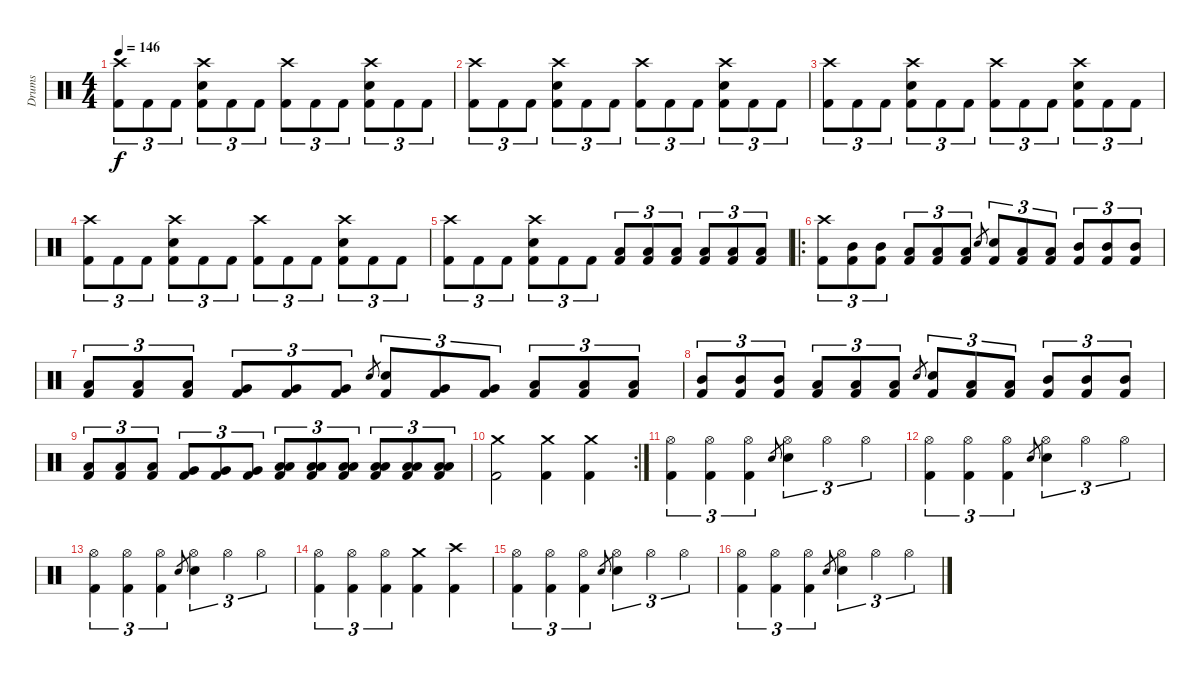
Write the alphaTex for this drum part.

\track ("Drums" "Drums") {instrument percussion}
\staff {score}
\articulation defaults
\ts (4 4)
\tempo 146
\clef neutral
\ks c
("Crash high (hit)" "Kick (hit) 2").8{tu (3 2) dy f} "Kick (hit) 2".8{tu (3 2)} "Kick (hit) 2".8{tu (3 2)} ("Crash high (hit)" "Snare (hit) 2" "Kick (hit) 2").8{tu (3 2)} "Kick (hit) 2".8{tu (3 2)} "Kick (hit) 2".8{tu (3 2)} ("Crash high (hit)" "Kick (hit) 2").8{tu (3 2)} "Kick (hit) 2".8{tu (3 2)} "Kick (hit) 2".8{tu (3 2)} ("Crash high (hit)" "Snare (hit) 2" "Kick (hit) 2").8{tu (3 2)} "Kick (hit) 2".8{tu (3 2)} "Kick (hit) 2".8{tu (3 2)} |
("Crash high (hit)" "Kick (hit) 2").8{tu (3 2)} "Kick (hit) 2".8{tu (3 2)} "Kick (hit) 2".8{tu (3 2)} ("Crash high (hit)" "Snare (hit) 2" "Kick (hit) 2").8{tu (3 2)} "Kick (hit) 2".8{tu (3 2)} "Kick (hit) 2".8{tu (3 2)} ("Crash high (hit)" "Kick (hit) 2").8{tu (3 2)} "Kick (hit) 2".8{tu (3 2)} "Kick (hit) 2".8{tu (3 2)} ("Crash high (hit)" "Snare (hit) 2" "Kick (hit) 2").8{tu (3 2)} "Kick (hit) 2".8{tu (3 2)} "Kick (hit) 2".8{tu (3 2)} |
("Crash high (hit)" "Kick (hit) 2").8{tu (3 2)} "Kick (hit) 2".8{tu (3 2)} "Kick (hit) 2".8{tu (3 2)} ("Crash high (hit)" "Snare (hit) 2" "Kick (hit) 2").8{tu (3 2)} "Kick (hit) 2".8{tu (3 2)} "Kick (hit) 2".8{tu (3 2)} ("Crash high (hit)" "Kick (hit) 2").8{tu (3 2)} "Kick (hit) 2".8{tu (3 2)} "Kick (hit) 2".8{tu (3 2)} ("Crash high (hit)" "Snare (hit) 2" "Kick (hit) 2").8{tu (3 2)} "Kick (hit) 2".8{tu (3 2)} "Kick (hit) 2".8{tu (3 2)} |
("Crash high (hit)" "Kick (hit) 2").8{tu (3 2)} "Kick (hit) 2".8{tu (3 2)} "Kick (hit) 2".8{tu (3 2)} ("Crash high (hit)" "Snare (hit) 2" "Kick (hit) 2").8{tu (3 2)} "Kick (hit) 2".8{tu (3 2)} "Kick (hit) 2".8{tu (3 2)} ("Crash high (hit)" "Kick (hit) 2").8{tu (3 2)} "Kick (hit) 2".8{tu (3 2)} "Kick (hit) 2".8{tu (3 2)} ("Crash high (hit)" "Snare (hit) 2" "Kick (hit) 2").8{tu (3 2)} "Kick (hit) 2".8{tu (3 2)} "Kick (hit) 2".8{tu (3 2)} |
("Crash high (hit)" "Kick (hit) 2").8{tu (3 2)} "Kick (hit) 2".8{tu (3 2)} "Kick (hit) 2".8{tu (3 2)} ("Crash high (hit)" "Snare (hit) 2" "Kick (hit) 2").8{tu (3 2)} "Kick (hit) 2".8{tu (3 2)} "Kick (hit) 2".8{tu (3 2)} ("Low Tom (hit)" "Kick (hit) 2").8{tu (3 2)} ("Low Tom (hit)" "Kick (hit) 2").8{tu (3 2)} ("Low Tom (hit)" "Kick (hit) 2").8{tu (3 2)} ("Low Tom (hit)" "Kick (hit) 2").8{tu (3 2)} ("Low Tom (hit)" "Kick (hit) 2").8{tu (3 2)} ("Low Tom (hit)" "Kick (hit) 2").8{tu (3 2)} |
\ro
("Crash high (hit)" "Kick (hit) 2").8{tu (3 2)} ("Mid Tom (hit)" "Kick (hit) 2").8{tu (3 2)} ("Mid Tom (hit)" "Kick (hit) 2").8{tu (3 2)} ("Low Tom (hit)" "Kick (hit) 2").8{tu (3 2)} ("Low Tom (hit)" "Kick (hit) 2").8{tu (3 2)} ("Low Tom (hit)" "Kick (hit) 2").8{tu (3 2)} "Snare (hit) 2".8{gr} ("Snare (hit) 2" "Kick (hit) 2").8{tu (3 2)} ("Low Tom (hit)" "Kick (hit) 2").8{tu (3 2)} ("Low Tom (hit)" "Kick (hit) 2").8{tu (3 2)} ("Mid Tom (hit)" "Kick (hit) 2").8{tu (3 2)} ("Mid Tom (hit)" "Kick (hit) 2").8{tu (3 2)} ("Mid Tom (hit)" "Kick (hit) 2").8{tu (3 2)} |
("Low Tom (hit)" "Kick (hit) 2").8{tu (3 2)} ("Low Tom (hit)" "Kick (hit) 2").8{tu (3 2)} ("Low Tom (hit)" "Kick (hit) 2").8{tu (3 2)} ("Very Low Tom (hit)" "Kick (hit) 2").8{tu (3 2)} ("Very Low Tom (hit)" "Kick (hit) 2").8{tu (3 2)} ("Very Low Tom (hit)" "Kick (hit) 2").8{tu (3 2)} "Snare (hit) 2".8{gr} ("Snare (hit) 2" "Kick (hit) 2").8{tu (3 2)} ("Very Low Tom (hit)" "Kick (hit) 2").8{tu (3 2)} ("Very Low Tom (hit)" "Kick (hit) 2").8{tu (3 2)} ("Low Tom (hit)" "Kick (hit) 2").8{tu (3 2)} ("Low Tom (hit)" "Kick (hit) 2").8{tu (3 2)} ("Low Tom (hit)" "Kick (hit) 2").8{tu (3 2)} |
("Mid Tom (hit)" "Kick (hit) 2").8{tu (3 2)} ("Mid Tom (hit)" "Kick (hit) 2").8{tu (3 2)} ("Mid Tom (hit)" "Kick (hit) 2").8{tu (3 2)} ("Low Tom (hit)" "Kick (hit) 2").8{tu (3 2)} ("Low Tom (hit)" "Kick (hit) 2").8{tu (3 2)} ("Low Tom (hit)" "Kick (hit) 2").8{tu (3 2)} "Snare (hit) 2".8{gr} ("Snare (hit) 2" "Kick (hit) 2").8{tu (3 2)} ("Low Tom (hit)" "Kick (hit) 2").8{tu (3 2)} ("Low Tom (hit)" "Kick (hit) 2").8{tu (3 2)} ("Mid Tom (hit)" "Kick (hit) 2").8{tu (3 2)} ("Mid Tom (hit)" "Kick (hit) 2").8{tu (3 2)} ("Mid Tom (hit)" "Kick (hit) 2").8{tu (3 2)} |
("Low Tom (hit)" "Kick (hit) 2").8{tu (3 2)} ("Low Tom (hit)" "Kick (hit) 2").8{tu (3 2)} ("Low Tom (hit)" "Kick (hit) 2").8{tu (3 2)} ("Very Low Tom (hit)" "Kick (hit) 2").8{tu (3 2)} ("Very Low Tom (hit)" "Kick (hit) 2").8{tu (3 2)} ("Very Low Tom (hit)" "Kick (hit) 2").8{tu (3 2)} ("Low Floor Tom (hit)" "Low Floor Tom (hit)" "Kick (hit) 2").8{tu (3 2)} ("Low Floor Tom (hit)" "Low Floor Tom (hit)" "Kick (hit) 2").8{tu (3 2)} ("Low Floor Tom (hit)" "Low Floor Tom (hit)" "Kick (hit) 2").8{tu (3 2)} ("Low Floor Tom (hit)" "Low Floor Tom (hit)" "Kick (hit) 2").8{tu (3 2)} ("Low Floor Tom (hit)" "Low Floor Tom (hit)" "Kick (hit) 2").8{tu (3 2)} ("Low Floor Tom (hit)" "Low Floor Tom (hit)" "Kick (hit) 2").8{tu (3 2)} |
\rc 2
("Crash medium (hit)" "Kick (hit) 2").2 ("Crash medium (hit)" "Kick (hit) 2").4 ("Crash medium (hit)" "Kick (hit) 2").4 |
("Hi-Hat (open)" "Kick (hit) 2").4{tu (3 2)} ("Hi-Hat (open)" "Kick (hit) 2").4{tu (3 2)} ("Hi-Hat (open)" "Kick (hit) 2").4{tu (3 2)} "Snare (hit) 2".8{gr} ("Hi-Hat (open)" "Snare (hit) 2").4{tu (3 2)} "Hi-Hat (open)".4{tu (3 2)} "Hi-Hat (open)".4{tu (3 2)} |
("Hi-Hat (open)" "Kick (hit) 2").4{tu (3 2)} ("Hi-Hat (open)" "Kick (hit) 2").4{tu (3 2)} ("Hi-Hat (open)" "Kick (hit) 2").4{tu (3 2)} "Snare (hit) 2".8{gr} ("Hi-Hat (open)" "Snare (hit) 2").4{tu (3 2)} "Hi-Hat (open)".4{tu (3 2)} "Hi-Hat (open)".4{tu (3 2)} |
("Hi-Hat (open)" "Kick (hit) 2").4{tu (3 2)} ("Hi-Hat (open)" "Kick (hit) 2").4{tu (3 2)} ("Hi-Hat (open)" "Kick (hit) 2").4{tu (3 2)} "Snare (hit) 2".8{gr} ("Hi-Hat (open)" "Snare (hit) 2").4{tu (3 2)} "Hi-Hat (open)".4{tu (3 2)} "Hi-Hat (open)".4{tu (3 2)} |
("Hi-Hat (open)" "Kick (hit) 2").4{tu (3 2)} ("Hi-Hat (open)" "Kick (hit) 2").4{tu (3 2)} ("Hi-Hat (open)" "Kick (hit) 2").4{tu (3 2)} ("Crash medium (hit)" "Kick (hit) 2").4 ("Crash high (hit)" "Kick (hit) 2").4 |
("Hi-Hat (open)" "Kick (hit) 2").4{tu (3 2)} ("Hi-Hat (open)" "Kick (hit) 2").4{tu (3 2)} ("Hi-Hat (open)" "Kick (hit) 2").4{tu (3 2)} "Snare (hit) 2".8{gr} ("Hi-Hat (open)" "Snare (hit) 2").4{tu (3 2)} "Hi-Hat (open)".4{tu (3 2)} "Hi-Hat (open)".4{tu (3 2)} |
("Hi-Hat (open)" "Kick (hit) 2").4{tu (3 2)} ("Hi-Hat (open)" "Kick (hit) 2").4{tu (3 2)} ("Hi-Hat (open)" "Kick (hit) 2").4{tu (3 2)} "Snare (hit) 2".8{gr} ("Hi-Hat (open)" "Snare (hit) 2").4{tu (3 2)} "Hi-Hat (open)".4{tu (3 2)} "Hi-Hat (open)".4{tu (3 2)}
